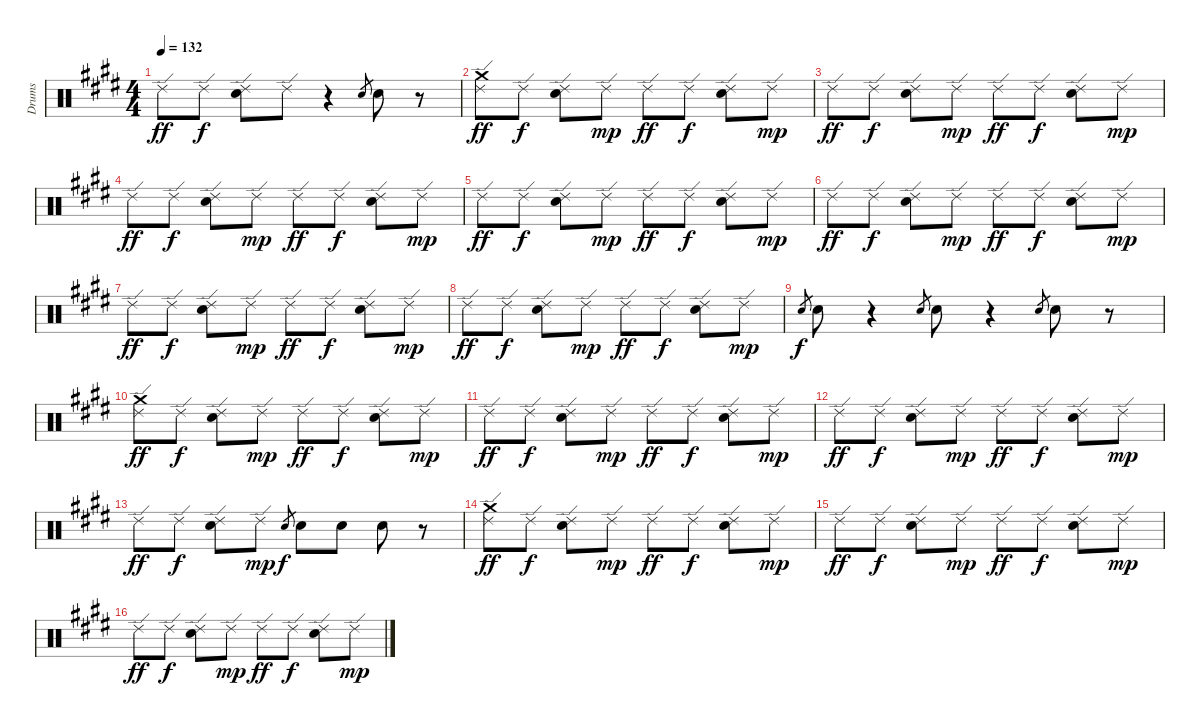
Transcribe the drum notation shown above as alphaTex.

\track ("Drums" "Drums") {instrument percussion}
\staff {score}
\articulation defaults
\ts (4 4)
\tempo 132
\clef neutral
\ks e "Ride (edge) 2".8{dy ff} "Ride (edge) 2".8{dy f}
("Electric Snare (hit)" "Ride (edge) 2").8 "Ride (edge) 2".8 r.4 "Electric Snare (hit)".8{gr} "Electric Snare (hit)".8 r.8 |
("Crash medium (hit)" "Ride (edge) 2").8{dy ff} "Ride (edge) 2".8{dy f} ("Electric Snare (hit)" "Ride (edge) 2").8 "Ride (edge) 2".8{dy mp} "Ride (edge) 2".8{dy ff} "Ride (edge) 2".8{dy f} ("Electric Snare (hit)" "Ride (edge) 2").8 "Ride (edge) 2".8{dy mp} |
"Ride (edge) 2".8{dy ff} "Ride (edge) 2".8{dy f} ("Electric Snare (hit)" "Ride (edge) 2").8 "Ride (edge) 2".8{dy mp} "Ride (edge) 2".8{dy ff} "Ride (edge) 2".8{dy f} ("Electric Snare (hit)" "Ride (edge) 2").8 "Ride (edge) 2".8{dy mp} |
"Ride (edge) 2".8{dy ff} "Ride (edge) 2".8{dy f} ("Electric Snare (hit)" "Ride (edge) 2").8 "Ride (edge) 2".8{dy mp} "Ride (edge) 2".8{dy ff} "Ride (edge) 2".8{dy f} ("Electric Snare (hit)" "Ride (edge) 2").8 "Ride (edge) 2".8{dy mp} |
"Ride (edge) 2".8{dy ff} "Ride (edge) 2".8{dy f} ("Electric Snare (hit)" "Ride (edge) 2").8 "Ride (edge) 2".8{dy mp} "Ride (edge) 2".8{dy ff} "Ride (edge) 2".8{dy f} ("Electric Snare (hit)" "Ride (edge) 2").8 "Ride (edge) 2".8{dy mp} |
"Ride (edge) 2".8{dy ff} "Ride (edge) 2".8{dy f} ("Electric Snare (hit)" "Ride (edge) 2").8 "Ride (edge) 2".8{dy mp} "Ride (edge) 2".8{dy ff} "Ride (edge) 2".8{dy f} ("Electric Snare (hit)" "Ride (edge) 2").8 "Ride (edge) 2".8{dy mp} |
"Ride (edge) 2".8{dy ff} "Ride (edge) 2".8{dy f} ("Electric Snare (hit)" "Ride (edge) 2").8 "Ride (edge) 2".8{dy mp} "Ride (edge) 2".8{dy ff} "Ride (edge) 2".8{dy f} ("Electric Snare (hit)" "Ride (edge) 2").8 "Ride (edge) 2".8{dy mp} |
"Ride (edge) 2".8{dy ff} "Ride (edge) 2".8{dy f} ("Electric Snare (hit)" "Ride (edge) 2").8 "Ride (edge) 2".8{dy mp} "Ride (edge) 2".8{dy ff} "Ride (edge) 2".8{dy f} ("Electric Snare (hit)" "Ride (edge) 2").8 "Ride (edge) 2".8{dy mp} |
"Electric Snare (hit)".8{gr dy f} "Electric Snare (hit)".8 r.4 "Electric Snare (hit)".8{gr} "Electric Snare (hit)".8 r.4 "Electric Snare (hit)".8{gr} "Electric Snare (hit)".8 r.8 |
("Crash medium (hit)" "Ride (edge) 2").8{dy ff} "Ride (edge) 2".8{dy f} ("Electric Snare (hit)" "Ride (edge) 2").8 "Ride (edge) 2".8{dy mp} "Ride (edge) 2".8{dy ff} "Ride (edge) 2".8{dy f} ("Electric Snare (hit)" "Ride (edge) 2").8 "Ride (edge) 2".8{dy mp} |
"Ride (edge) 2".8{dy ff} "Ride (edge) 2".8{dy f} ("Electric Snare (hit)" "Ride (edge) 2").8 "Ride (edge) 2".8{dy mp} "Ride (edge) 2".8{dy ff} "Ride (edge) 2".8{dy f} ("Electric Snare (hit)" "Ride (edge) 2").8 "Ride (edge) 2".8{dy mp} |
"Ride (edge) 2".8{dy ff} "Ride (edge) 2".8{dy f} ("Electric Snare (hit)" "Ride (edge) 2").8 "Ride (edge) 2".8{dy mp} "Ride (edge) 2".8{dy ff} "Ride (edge) 2".8{dy f} ("Electric Snare (hit)" "Ride (edge) 2").8 "Ride (edge) 2".8{dy mp} |
"Ride (edge) 2".8{dy ff} "Ride (edge) 2".8{dy f} ("Electric Snare (hit)" "Ride (edge) 2").8 "Ride (edge) 2".8{dy mp} "Electric Snare (hit)".8{gr dy f} "Electric Snare (hit)".8 "Electric Snare (hit)".8 "Electric Snare (hit)".8 r.8 |
("Crash medium (hit)" "Ride (edge) 2").8{dy ff} "Ride (edge) 2".8{dy f} ("Electric Snare (hit)" "Ride (edge) 2").8 "Ride (edge) 2".8{dy mp} "Ride (edge) 2".8{dy ff} "Ride (edge) 2".8{dy f} ("Electric Snare (hit)" "Ride (edge) 2").8 "Ride (edge) 2".8{dy mp} |
"Ride (edge) 2".8{dy ff} "Ride (edge) 2".8{dy f} ("Electric Snare (hit)" "Ride (edge) 2").8 "Ride (edge) 2".8{dy mp} "Ride (edge) 2".8{dy ff} "Ride (edge) 2".8{dy f} ("Electric Snare (hit)" "Ride (edge) 2").8 "Ride (edge) 2".8{dy mp} |
"Ride (edge) 2".8{dy ff} "Ride (edge) 2".8{dy f} ("Electric Snare (hit)" "Ride (edge) 2").8 "Ride (edge) 2".8{dy mp} "Ride (edge) 2".8{dy ff} "Ride (edge) 2".8{dy f} ("Electric Snare (hit)" "Ride (edge) 2").8 "Ride (edge) 2".8{dy mp}
